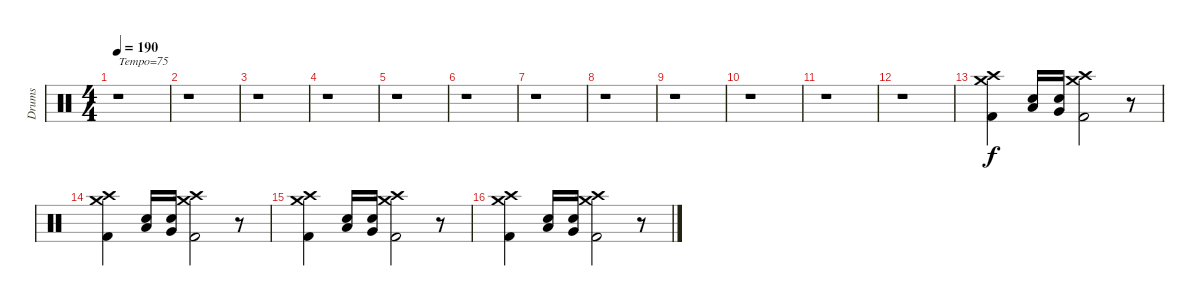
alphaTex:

\track ("Drums" "Drums") {instrument percussion}
\staff {score}
\articulation defaults
\ts (4 4)
\tempo 190
\clef neutral
\ks c
r.1{txt "Tempo=75" dy f} |
r.1 |
r.1 |
r.1 |
r.1 |
r.1 |
r.1 |
r.1 |
r.1 |
r.1 |
r.1 |
r.1 |
("Crash high (hit)" "Crash medium (hit)" "Kick (hit) 2").4 ("Low Tom (hit)" "Snare (hit) 2").16 ("Very Low Tom (hit)" "Snare (hit) 2").16 ("Crash high (hit)" "Crash medium (hit)" "Kick (hit) 2").2 r.8 |
("Crash high (hit)" "Crash medium (hit)" "Kick (hit) 2").4 ("Low Tom (hit)" "Snare (hit) 2").16 ("Very Low Tom (hit)" "Snare (hit) 2").16 ("Crash high (hit)" "Crash medium (hit)" "Kick (hit) 2").2 r.8 |
("Crash high (hit)" "Crash medium (hit)" "Kick (hit) 2").4 ("Low Tom (hit)" "Snare (hit) 2").16 ("Very Low Tom (hit)" "Snare (hit) 2").16 ("Crash high (hit)" "Crash medium (hit)" "Kick (hit) 2").2 r.8 |
("Crash high (hit)" "Crash medium (hit)" "Kick (hit) 2").4 ("Low Tom (hit)" "Snare (hit) 2").16 ("Very Low Tom (hit)" "Snare (hit) 2").16 ("Crash high (hit)" "Crash medium (hit)" "Kick (hit) 2").2 r.8
